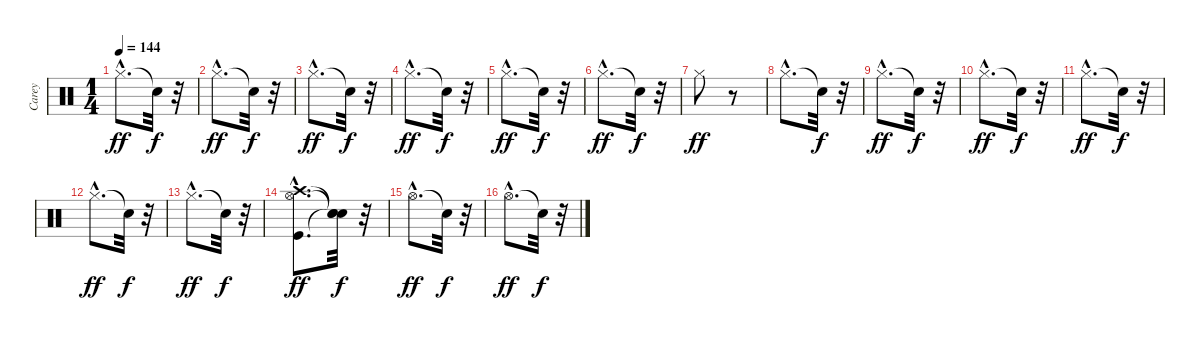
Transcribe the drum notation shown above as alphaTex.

\track ("Carey" "Carey") {instrument percussion}
\staff {score}
\articulation defaults
\ts (1 4)
\tempo 144
\clef neutral
\ks c "Hi-Hat (closed)"{hac}.8{d dy ff} "Snare (hit)"{t}.32{dy f}
r.32 |
"Hi-Hat (closed)"{hac}.8{d dy ff} "Snare (hit)"{t}.32{dy f} r.32 |
"Hi-Hat (closed)"{hac}.8{d dy ff} "Snare (hit)"{t}.32{dy f} r.32 |
"Hi-Hat (closed)"{hac}.8{d dy ff} "Snare (hit)"{t}.32{dy f} r.32 |
"Hi-Hat (closed)"{hac}.8{d dy ff} "Snare (hit)"{t}.32{dy f} r.32 |
"Hi-Hat (closed)"{hac}.8{d dy ff} "Snare (hit)"{t}.32{dy f} r.32 |
"Hi-Hat (closed)".8{dy ff} r.8 |
"Hi-Hat (closed)"{hac}.8{d} "Snare (hit)"{t}.32{dy f} r.32 |
"Hi-Hat (closed)"{hac}.8{d dy ff} "Snare (hit)"{t}.32{dy f} r.32 |
"Hi-Hat (closed)"{hac}.8{d dy ff} "Snare (hit)"{t}.32{dy f} r.32 |
"Hi-Hat (closed)"{hac}.8{d dy ff} "Snare (hit)"{t}.32{dy f} r.32 |
"Hi-Hat (closed)"{hac}.8{d dy ff} "Snare (hit)"{t}.32{dy f} r.32 |
"Hi-Hat (closed)"{hac}.8{d dy ff} "Snare (hit)"{t}.32{dy f} r.32 |
("Kick (hit)"{hac} "Hi-Hat (open)"{hac} "Crash high (hit)"{hac}).8{d dy ff} ("Snare (hit)"{t} "Snare (hit)"{t} "Snare (hit)"{t}).32{dy f} r.32 |
"Hi-Hat (open)"{hac}.8{d dy ff} "Snare (hit)"{t}.32{dy f} r.32 |
"Hi-Hat (open)"{hac}.8{d dy ff} "Snare (hit)"{t}.32{dy f} r.32
